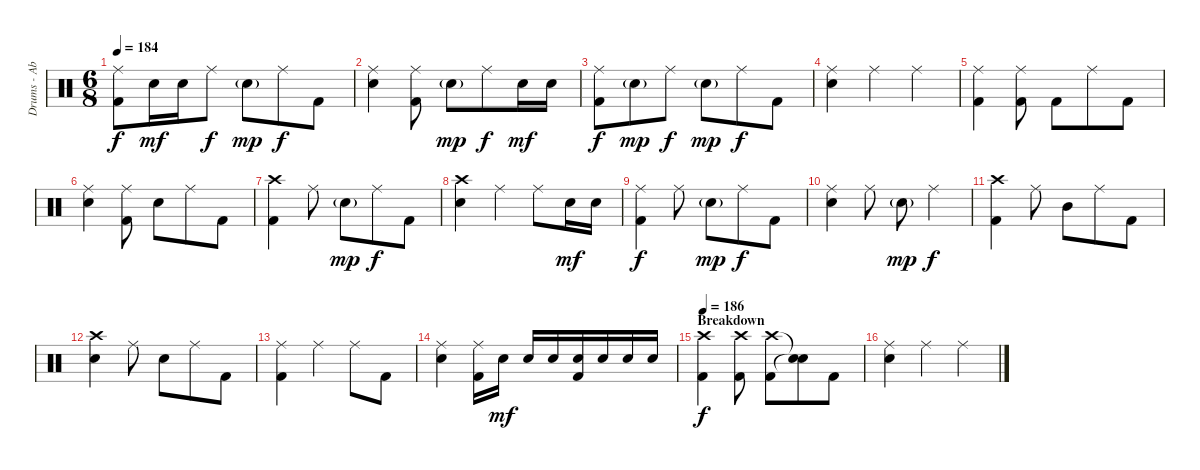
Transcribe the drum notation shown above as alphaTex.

\track ("Drums - Abe Cunningham" "Drums - Ab") {instrument percussion}
\staff {score}
\articulation defaults
\ts (6 8)
\tempo 184
\clef neutral
\ks c
("Ride (middle)" "Kick (hit) 2").8{dy f} "Electric Snare (hit)".16{dy mf} "Electric Snare (hit)".16 "Ride (middle)".8{dy f} "Electric Snare (hit)"{g}.8{dy mp} "Ride (middle)".8{dy f} "Kick (hit) 2".8 |
("Ride (middle)" "Electric Snare (hit)").4 ("Ride (middle)" "Kick (hit) 2").8 "Electric Snare (hit)"{g}.8{dy mp} "Ride (middle)".8{dy f} "Electric Snare (hit)".16{dy mf} "Electric Snare (hit)".16 |
("Ride (middle)" "Kick (hit) 2").8{dy f} "Electric Snare (hit)"{g}.8{dy mp} "Ride (middle)".8{dy f} "Electric Snare (hit)"{g}.8{dy mp} "Ride (middle)".8{dy f} "Kick (hit) 2".8 |
("Ride (middle)" "Electric Snare (hit)").4 "Ride (middle)".4 "Ride (middle)".4 |
("Ride (middle)" "Kick (hit) 2").4 ("Ride (middle)" "Kick (hit) 2").8 "Kick (hit) 2".8 "Ride (middle)".8 "Kick (hit) 2".8 |
("Ride (middle)" "Electric Snare (hit)").4 ("Ride (middle)" "Kick (hit) 2").8 "Electric Snare (hit)".8 "Ride (middle)".8 "Kick (hit) 2".8 |
("Crash high (hit)" "Kick (hit) 2").4 "Ride (middle)".8 "Electric Snare (hit)"{g}.8{dy mp} "Ride (middle)".8{dy f} "Kick (hit) 2".8 |
("Crash high (hit)" "Electric Snare (hit)").4 "Ride (middle)".4 "Ride (middle)".8 "Electric Snare (hit)".16{dy mf} "Electric Snare (hit)".16 |
("Ride (middle)" "Kick (hit) 2").4{dy f} "Ride (middle)".8 "Electric Snare (hit)"{g}.8{dy mp} "Ride (middle)".8{dy f} "Kick (hit) 2".8 |
("Ride (middle)" "Electric Snare (hit)").4 "Ride (middle)".8 "Electric Snare (hit)"{g}.8{dy mp} "Ride (middle)".4{dy f} |
("Crash high (hit)" "Kick (hit) 2").4 "Ride (middle)".8 "Mid Tom (hit)".8 "Ride (middle)".8 "Kick (hit) 2".8 |
("Crash high (hit)" "Electric Snare (hit)").4 "Ride (middle)".8 "Electric Snare (hit)".8 "Ride (middle)".8 "Kick (hit) 2".8 |
("Ride (middle)" "Kick (hit) 2").4 "Ride (middle)".4 "Ride (middle)".8 "Kick (hit) 2".8 |
("Ride (middle)" "Electric Snare (hit)").4 ("Ride (middle)" "Kick (hit) 2").16 "Electric Snare (hit)".16{dy mf} "Electric Snare (hit)".16 "Electric Snare (hit)".16 ("Electric Snare (hit)" "Kick (hit) 2").16 "Electric Snare (hit)".16 "Electric Snare (hit)".16 "Electric Snare (hit)".16 |
\section ("" "Breakdown")
\tempo 186
("Crash high (hit)" "Kick (hit) 2").4{dy f} ("Crash high (hit)" "Kick (hit) 2").8 ("Crash high (hit)" "Kick (hit) 2").8 ("Snare (hit)"{t} "Snare (hit)"{t}).8 "Kick (hit) 2".8 |
("Ride (middle)" "Electric Snare (hit)").4 "Ride (middle)".4 "Ride (middle)".4
